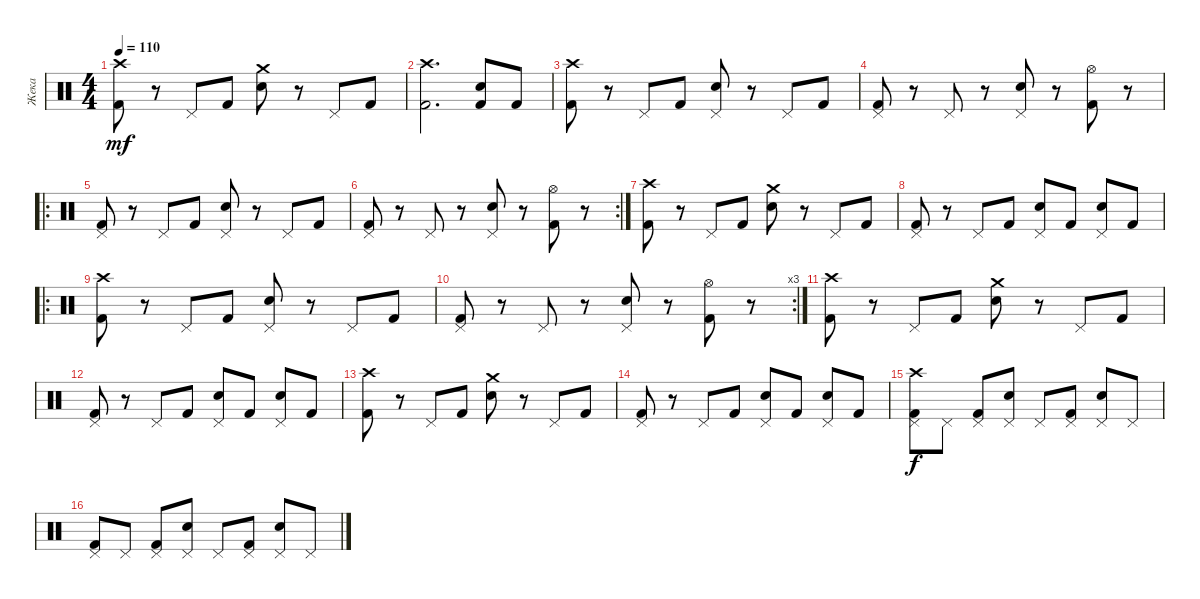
\track ("Жека" "Жека") {instrument percussion}
\staff {score}
\articulation defaults
\ts (4 4)
\tempo 110
\clef neutral
\ks c
("Crash high (hit)" "Kick (hit) 2").8{dy mf} r.8 "Pedal Hi-Hat (hit)".8 "Kick (hit) 2".8 ("Crash medium (hit)" "Snare (hit) 2").8 r.8 "Pedal Hi-Hat (hit)".8 "Kick (hit) 2".8 |
("Crash high (hit)" "Kick (hit) 2").2{d} ("Kick (hit) 2" "Snare (hit) 2").8 "Kick (hit) 2".8 |
("Crash high (hit)" "Kick (hit) 2").8 r.8 "Pedal Hi-Hat (hit)".8 "Kick (hit) 2".8 ("Pedal Hi-Hat (hit)" "Snare (hit) 2").8 r.8 "Pedal Hi-Hat (hit)".8 "Kick (hit) 2".8 |
("Pedal Hi-Hat (hit)" "Kick (hit) 2").8 r.8 "Pedal Hi-Hat (hit)".8 r.8 ("Pedal Hi-Hat (hit)" "Snare (hit) 2").8 r.8 ("Hi-Hat (open)" "Kick (hit) 2").8 r.8 |
\ro
("Pedal Hi-Hat (hit)" "Kick (hit) 2").8 r.8 "Pedal Hi-Hat (hit)".8 "Kick (hit) 2".8 ("Pedal Hi-Hat (hit)" "Snare (hit) 2").8 r.8 "Pedal Hi-Hat (hit)".8 "Kick (hit) 2".8 |
\rc 2
("Pedal Hi-Hat (hit)" "Kick (hit) 2").8 r.8 "Pedal Hi-Hat (hit)".8 r.8 ("Pedal Hi-Hat (hit)" "Snare (hit) 2").8 r.8 ("Hi-Hat (open)" "Kick (hit) 2").8 r.8 |
("Crash high (hit)" "Kick (hit) 2").8 r.8 "Pedal Hi-Hat (hit)".8 "Kick (hit) 2".8 ("Crash medium (hit)" "Snare (hit) 2").8 r.8 "Pedal Hi-Hat (hit)".8 "Kick (hit) 2".8 |
("Pedal Hi-Hat (hit)" "Kick (hit) 2").8 r.8 "Pedal Hi-Hat (hit)".8 "Kick (hit) 2".8 ("Pedal Hi-Hat (hit)" "Snare (hit) 2").8 "Kick (hit) 2".8 ("Pedal Hi-Hat (hit)" "Snare (hit) 2").8 "Kick (hit) 2".8 |
\ro
("Crash high (hit)" "Kick (hit) 2").8 r.8 "Pedal Hi-Hat (hit)".8 "Kick (hit) 2".8 ("Pedal Hi-Hat (hit)" "Snare (hit) 2").8 r.8 "Pedal Hi-Hat (hit)".8 "Kick (hit) 2".8 |
\rc 3
("Pedal Hi-Hat (hit)" "Kick (hit) 2").8 r.8 "Pedal Hi-Hat (hit)".8 r.8 ("Pedal Hi-Hat (hit)" "Snare (hit) 2").8 r.8 ("Hi-Hat (open)" "Kick (hit) 2").8 r.8 |
("Crash high (hit)" "Kick (hit) 2").8 r.8 "Pedal Hi-Hat (hit)".8 "Kick (hit) 2".8 ("Crash medium (hit)" "Snare (hit) 2").8 r.8 "Pedal Hi-Hat (hit)".8 "Kick (hit) 2".8 |
("Pedal Hi-Hat (hit)" "Kick (hit) 2").8 r.8 "Pedal Hi-Hat (hit)".8 "Kick (hit) 2".8 ("Pedal Hi-Hat (hit)" "Snare (hit) 2").8 "Kick (hit) 2".8 ("Pedal Hi-Hat (hit)" "Snare (hit) 2").8 "Kick (hit) 2".8 |
("Crash high (hit)" "Kick (hit) 2").8 r.8 "Pedal Hi-Hat (hit)".8 "Kick (hit) 2".8 ("Crash medium (hit)" "Snare (hit) 2").8 r.8 "Pedal Hi-Hat (hit)".8 "Kick (hit) 2".8 |
("Pedal Hi-Hat (hit)" "Kick (hit) 2").8 r.8 "Pedal Hi-Hat (hit)".8 "Kick (hit) 2".8 ("Pedal Hi-Hat (hit)" "Snare (hit) 2").8 "Kick (hit) 2".8 ("Pedal Hi-Hat (hit)" "Snare (hit) 2").8 "Kick (hit) 2".8 |
("Pedal Hi-Hat (hit)" "Kick (hit) 2" "Crash high (hit)").8{dy f} "Pedal Hi-Hat (hit)".8 ("Pedal Hi-Hat (hit)" "Kick (hit) 2").8 ("Pedal Hi-Hat (hit)" "Snare (hit) 2").8 "Pedal Hi-Hat (hit)".8 ("Pedal Hi-Hat (hit)" "Kick (hit) 2").8 ("Pedal Hi-Hat (hit)" "Snare (hit) 2").8 "Pedal Hi-Hat (hit)".8 |
("Pedal Hi-Hat (hit)" "Kick (hit) 2").8 "Pedal Hi-Hat (hit)".8 ("Pedal Hi-Hat (hit)" "Kick (hit) 2").8 ("Pedal Hi-Hat (hit)" "Snare (hit) 2").8 "Pedal Hi-Hat (hit)".8 ("Pedal Hi-Hat (hit)" "Kick (hit) 2").8 ("Pedal Hi-Hat (hit)" "Snare (hit) 2").8 "Pedal Hi-Hat (hit)".8
